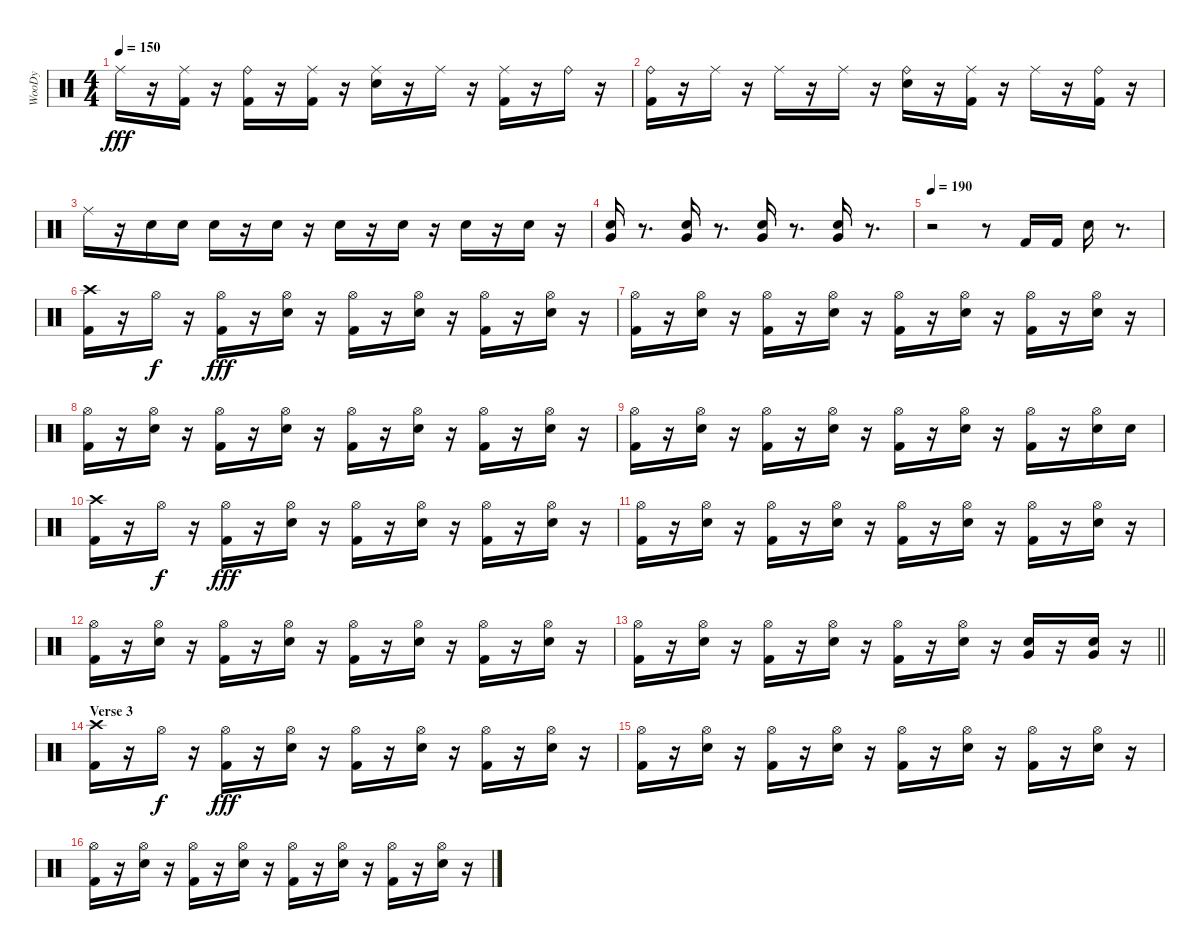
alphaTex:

\track ("WooDy" "WooDy") {instrument percussion}
\staff {score}
\articulation defaults
\ts (4 4)
\tempo 150
\clef neutral
\ks c "Ride (middle)".16{dy fff}
r.16 ("Kick (hit) 2" "Ride (middle)").16 r.16 ("Kick (hit) 2" "Ride (bell)").16 r.16 ("Kick (hit) 2" "Ride (middle)").16 r.16 ("Snare (hit) 2" "Ride (middle)").16 r.16 "Ride (middle)".16 r.16 ("Kick (hit) 2" "Ride (middle)").16 r.16 "Ride (bell)".16 r.16 |
("Kick (hit) 2" "Ride (bell)").16 r.16 "Ride (middle)".16 r.16 "Ride (middle)".16 r.16 "Ride (middle)".16 r.16 ("Snare (hit) 2" "Ride (bell)").16 r.16 ("Kick (hit) 2" "Ride (middle)").16 r.16 "Ride (middle)".16 r.16 ("Kick (hit) 2" "Ride (bell)").16 r.16 |
"Ride (middle)".16 r.16 "Snare (hit) 2".16 "Snare (hit) 2".16 "Snare (hit) 2".16 r.16 "Snare (hit) 2".16 r.16 "Snare (hit) 2".16 r.16 "Snare (hit) 2".16 r.16 "Snare (hit) 2".16 r.16 "Snare (hit) 2".16 r.16 |
("Snare (hit) 2" "Very Low Tom (hit)").16 r.8{d} ("Snare (hit) 2" "Very Low Tom (hit)").16 r.8{d} ("Snare (hit) 2" "Very Low Tom (hit)").16 r.8{d} ("Snare (hit) 2" "Very Low Tom (hit)").16 r.8{d} |
\tempo 190
r.2 r.8 "Kick (hit) 2".16 "Kick (hit) 2".16 "Snare (hit) 2".16 r.8{d} |
("Kick (hit) 2" "Crash high (hit)").16 r.16 "Hi-Hat (open)".16{dy f} r.16 ("Kick (hit) 2" "Hi-Hat (open)").16{dy fff} r.16 ("Snare (hit) 2" "Hi-Hat (open)").16 r.16 ("Kick (hit) 2" "Hi-Hat (open)").16 r.16 ("Snare (hit) 2" "Hi-Hat (open)").16 r.16 ("Kick (hit) 2" "Hi-Hat (open)").16 r.16 ("Snare (hit) 2" "Hi-Hat (open)").16 r.16 |
("Kick (hit) 2" "Hi-Hat (open)").16 r.16 ("Snare (hit) 2" "Hi-Hat (open)").16 r.16 ("Kick (hit) 2" "Hi-Hat (open)").16 r.16 ("Snare (hit) 2" "Hi-Hat (open)").16 r.16 ("Kick (hit) 2" "Hi-Hat (open)").16 r.16 ("Snare (hit) 2" "Hi-Hat (open)").16 r.16 ("Kick (hit) 2" "Hi-Hat (open)").16 r.16 ("Snare (hit) 2" "Hi-Hat (open)").16 r.16 |
("Kick (hit) 2" "Hi-Hat (open)").16 r.16 ("Snare (hit) 2" "Hi-Hat (open)").16 r.16 ("Kick (hit) 2" "Hi-Hat (open)").16 r.16 ("Snare (hit) 2" "Hi-Hat (open)").16 r.16 ("Kick (hit) 2" "Hi-Hat (open)").16 r.16 ("Snare (hit) 2" "Hi-Hat (open)").16 r.16 ("Kick (hit) 2" "Hi-Hat (open)").16 r.16 ("Snare (hit) 2" "Hi-Hat (open)").16 r.16 |
("Kick (hit) 2" "Hi-Hat (open)").16 r.16 ("Snare (hit) 2" "Hi-Hat (open)").16 r.16 ("Kick (hit) 2" "Hi-Hat (open)").16 r.16 ("Snare (hit) 2" "Hi-Hat (open)").16 r.16 ("Kick (hit) 2" "Hi-Hat (open)").16 r.16 ("Snare (hit) 2" "Hi-Hat (open)").16 r.16 ("Kick (hit) 2" "Hi-Hat (open)").16 r.16 ("Snare (hit) 2" "Hi-Hat (open)").16 "Snare (hit) 2".16 |
("Kick (hit) 2" "Crash high (hit)").16 r.16 "Hi-Hat (open)".16{dy f} r.16 ("Kick (hit) 2" "Hi-Hat (open)").16{dy fff} r.16 ("Snare (hit) 2" "Hi-Hat (open)").16 r.16 ("Kick (hit) 2" "Hi-Hat (open)").16 r.16 ("Snare (hit) 2" "Hi-Hat (open)").16 r.16 ("Kick (hit) 2" "Hi-Hat (open)").16 r.16 ("Snare (hit) 2" "Hi-Hat (open)").16 r.16 |
("Kick (hit) 2" "Hi-Hat (open)").16 r.16 ("Snare (hit) 2" "Hi-Hat (open)").16 r.16 ("Kick (hit) 2" "Hi-Hat (open)").16 r.16 ("Snare (hit) 2" "Hi-Hat (open)").16 r.16 ("Kick (hit) 2" "Hi-Hat (open)").16 r.16 ("Snare (hit) 2" "Hi-Hat (open)").16 r.16 ("Kick (hit) 2" "Hi-Hat (open)").16 r.16 ("Snare (hit) 2" "Hi-Hat (open)").16 r.16 |
("Kick (hit) 2" "Hi-Hat (open)").16 r.16 ("Snare (hit) 2" "Hi-Hat (open)").16 r.16 ("Kick (hit) 2" "Hi-Hat (open)").16 r.16 ("Snare (hit) 2" "Hi-Hat (open)").16 r.16 ("Kick (hit) 2" "Hi-Hat (open)").16 r.16 ("Snare (hit) 2" "Hi-Hat (open)").16 r.16 ("Kick (hit) 2" "Hi-Hat (open)").16 r.16 ("Snare (hit) 2" "Hi-Hat (open)").16 r.16 |
\barLineRight lightlight
("Kick (hit) 2" "Hi-Hat (open)").16 r.16 ("Snare (hit) 2" "Hi-Hat (open)").16 r.16 ("Kick (hit) 2" "Hi-Hat (open)").16 r.16 ("Snare (hit) 2" "Hi-Hat (open)").16 r.16 ("Kick (hit) 2" "Hi-Hat (open)").16 r.16 ("Snare (hit) 2" "Hi-Hat (open)").16 r.16 ("Snare (hit) 2" "Very Low Tom (hit)").16 r.16 ("Snare (hit) 2" "Very Low Tom (hit)").16 r.16 |
\section ("" "Verse 3")
("Kick (hit) 2" "Crash high (hit)").16 r.16 "Hi-Hat (open)".16{dy f} r.16 ("Kick (hit) 2" "Hi-Hat (open)").16{dy fff} r.16 ("Snare (hit) 2" "Hi-Hat (open)").16 r.16 ("Kick (hit) 2" "Hi-Hat (open)").16 r.16 ("Snare (hit) 2" "Hi-Hat (open)").16 r.16 ("Kick (hit) 2" "Hi-Hat (open)").16 r.16 ("Snare (hit) 2" "Hi-Hat (open)").16 r.16 |
("Kick (hit) 2" "Hi-Hat (open)").16 r.16 ("Snare (hit) 2" "Hi-Hat (open)").16 r.16 ("Kick (hit) 2" "Hi-Hat (open)").16 r.16 ("Snare (hit) 2" "Hi-Hat (open)").16 r.16 ("Kick (hit) 2" "Hi-Hat (open)").16 r.16 ("Snare (hit) 2" "Hi-Hat (open)").16 r.16 ("Kick (hit) 2" "Hi-Hat (open)").16 r.16 ("Snare (hit) 2" "Hi-Hat (open)").16 r.16 |
("Kick (hit) 2" "Hi-Hat (open)").16 r.16 ("Snare (hit) 2" "Hi-Hat (open)").16 r.16 ("Kick (hit) 2" "Hi-Hat (open)").16 r.16 ("Snare (hit) 2" "Hi-Hat (open)").16 r.16 ("Kick (hit) 2" "Hi-Hat (open)").16 r.16 ("Snare (hit) 2" "Hi-Hat (open)").16 r.16 ("Kick (hit) 2" "Hi-Hat (open)").16 r.16 ("Snare (hit) 2" "Hi-Hat (open)").16 r.16
